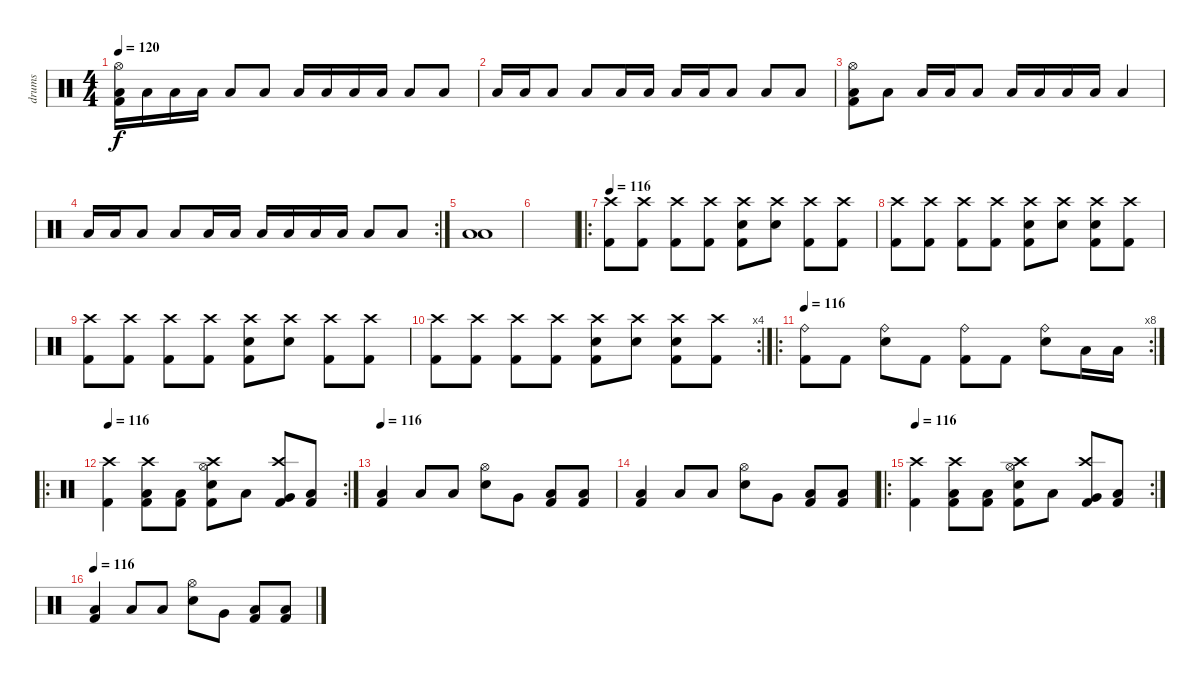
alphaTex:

\track ("drums" "drums") {instrument percussion}
\staff {score}
\articulation defaults
\ts (4 4)
\tempo 120
\tempo 89
\tempo 120
\clef neutral
\ks c
("Hi-Hat (open)" "Low Floor Tom (hit)" "Kick (hit) 2").16{dy f} "Low Floor Tom (hit)".16 "Low Floor Tom (hit)".16 "Low Floor Tom (hit)".16 "Low Floor Tom (hit)".8 "Low Floor Tom (hit)".8 "Low Floor Tom (hit)".16 "Low Floor Tom (hit)".16 "Low Floor Tom (hit)".16 "Low Floor Tom (hit)".16 "Low Floor Tom (hit)".8 "Low Floor Tom (hit)".8 |
"Low Floor Tom (hit)".16 "Low Floor Tom (hit)".16 "Low Floor Tom (hit)".8 "Low Floor Tom (hit)".8 "Low Floor Tom (hit)".16 "Low Floor Tom (hit)".16 "Low Floor Tom (hit)".16 "Low Floor Tom (hit)".16 "Low Floor Tom (hit)".8 "Low Floor Tom (hit)".8 "Low Floor Tom (hit)".8 |
("Hi-Hat (open)" "Low Floor Tom (hit)" "Kick (hit) 2").8 "Low Floor Tom (hit)".8 "Low Floor Tom (hit)".16 "Low Floor Tom (hit)".16 "Low Floor Tom (hit)".8 "Low Floor Tom (hit)".16 "Low Floor Tom (hit)".16 "Low Floor Tom (hit)".16 "Low Floor Tom (hit)".16 "Low Floor Tom (hit)".4 |
\rc 2 "Low Floor Tom (hit)".16 "Low Floor Tom (hit)".16 "Low Floor Tom (hit)".8 "Low Floor Tom (hit)".8 "Low Floor Tom (hit)".16 "Low Floor Tom (hit)".16 "Low Floor Tom (hit)".16 "Low Floor Tom (hit)".16 "Low Floor Tom (hit)".16 "Low Floor Tom (hit)".16 "Low Floor Tom (hit)".8 "Low Floor Tom (hit)".8
|
("Low Floor Tom (hit)" "Low Floor Tom (hit)").1 |
|
\ro
\tempo 116
("Crash high (hit)" "Kick (hit) 2").8 ("Crash high (hit)" "Kick (hit) 2").8 ("Crash high (hit)" "Kick (hit) 2").8 ("Crash high (hit)" "Kick (hit) 2").8 ("Crash high (hit)" "Electric Snare (hit)" "Kick (hit) 2").8 ("Crash high (hit)" "Electric Snare (hit)").8 ("Crash high (hit)" "Kick (hit) 2").8 ("Crash high (hit)" "Kick (hit) 2").8 |
("Crash high (hit)" "Kick (hit) 2").8 ("Crash high (hit)" "Kick (hit) 2").8 ("Crash high (hit)" "Kick (hit) 2").8 ("Crash high (hit)" "Kick (hit) 2").8 ("Crash high (hit)" "Electric Snare (hit)" "Kick (hit) 2").8 ("Crash high (hit)" "Electric Snare (hit)").8 ("Crash high (hit)" "Electric Snare (hit)" "Kick (hit) 2").8 ("Crash high (hit)" "Kick (hit) 2").8 |
("Crash high (hit)" "Kick (hit) 2").8 ("Crash high (hit)" "Kick (hit) 2").8 ("Crash high (hit)" "Kick (hit) 2").8 ("Crash high (hit)" "Kick (hit) 2").8 ("Crash high (hit)" "Electric Snare (hit)" "Kick (hit) 2").8 ("Crash high (hit)" "Electric Snare (hit)").8 ("Crash high (hit)" "Kick (hit) 2").8 ("Crash high (hit)" "Kick (hit) 2").8 |
\rc 4
("Crash high (hit)" "Kick (hit) 2").8 ("Crash high (hit)" "Kick (hit) 2").8 ("Crash high (hit)" "Kick (hit) 2").8 ("Crash high (hit)" "Kick (hit) 2").8 ("Crash high (hit)" "Electric Snare (hit)" "Kick (hit) 2").8 ("Crash high (hit)" "Electric Snare (hit)").8 ("Crash high (hit)" "Electric Snare (hit)" "Kick (hit) 2").8 ("Crash high (hit)" "Kick (hit) 2").8 |
\ro
\rc 8
\tempo 116
("Ride (bell)" "Kick (hit) 2").8 "Kick (hit) 2".8 ("Ride (bell)" "Electric Snare (hit)").8 "Kick (hit) 2".8 ("Ride (bell)" "Kick (hit) 2").8 "Kick (hit) 2".8 ("Ride (bell)" "Electric Snare (hit)").8 "Low Floor Tom (hit)".16 "Low Floor Tom (hit)".16 |
\ro
\rc 2
\tempo 116
("Crash high (hit)" "Kick (hit) 2").4 ("Crash high (hit)" "Low Floor Tom (hit)" "Kick (hit) 2").8 ("Low Floor Tom (hit)" "Kick (hit) 2").8 ("Crash high (hit)" "Hi-Hat (open)" "Electric Snare (hit)" "Kick (hit) 2").8 "Low Floor Tom (hit)".8 ("Crash high (hit)" "Very Low Tom (hit)" "Kick (hit) 2").8 ("Low Floor Tom (hit)" "Kick (hit) 2").8 |
\tempo 116
("Low Floor Tom (hit)" "Kick (hit) 2").4 "Low Floor Tom (hit)".8 "Low Floor Tom (hit)".8 ("Hi-Hat (open)" "Electric Snare (hit)").8 "Very Low Tom (hit)".8 ("Low Floor Tom (hit)" "Kick (hit) 2").8 ("Low Floor Tom (hit)" "Kick (hit) 2").8 |
("Low Floor Tom (hit)" "Kick (hit) 2").4 "Low Floor Tom (hit)".8 "Low Floor Tom (hit)".8 ("Hi-Hat (open)" "Electric Snare (hit)").8 "Very Low Tom (hit)".8 ("Low Floor Tom (hit)" "Kick (hit) 2").8 ("Low Floor Tom (hit)" "Kick (hit) 2").8 |
\ro
\rc 2
\tempo 116
("Crash high (hit)" "Kick (hit) 2").4 ("Crash high (hit)" "Low Floor Tom (hit)" "Kick (hit) 2").8 ("Low Floor Tom (hit)" "Kick (hit) 2").8 ("Crash high (hit)" "Hi-Hat (open)" "Electric Snare (hit)" "Kick (hit) 2").8 "Low Floor Tom (hit)".8 ("Crash high (hit)" "Very Low Tom (hit)" "Kick (hit) 2").8 ("Low Floor Tom (hit)" "Kick (hit) 2").8 |
\tempo 116
("Low Floor Tom (hit)" "Kick (hit) 2").4 "Low Floor Tom (hit)".8 "Low Floor Tom (hit)".8 ("Hi-Hat (open)" "Electric Snare (hit)").8 "Very Low Tom (hit)".8 ("Low Floor Tom (hit)" "Kick (hit) 2").8 ("Low Floor Tom (hit)" "Kick (hit) 2").8
